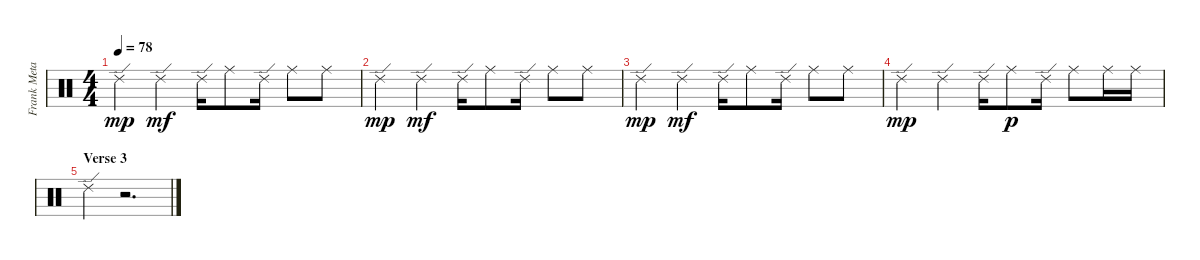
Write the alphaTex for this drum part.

\track ("Frank Metayer" "Frank Meta") {instrument percussion}
\staff {score}
\articulation defaults
\ts (4 4)
\tempo 78
\clef neutral
\ks c "Ride (edge) 2".4{dy mp} "Ride (edge) 2".4{dy mf} "Ride (edge) 2".16 "Ride (middle)".8 "Ride (edge) 2".16 "Ride (middle)".8 "Ride (middle)".8
|
"Ride (edge) 2".4{dy mp} "Ride (edge) 2".4{dy mf} "Ride (edge) 2".16 "Ride (middle)".8 "Ride (edge) 2".16 "Ride (middle)".8 "Ride (middle)".8 |
"Ride (edge) 2".4{dy mp} "Ride (edge) 2".4{dy mf} "Ride (edge) 2".16 "Ride (middle)".8 "Ride (edge) 2".16 "Ride (middle)".8 "Ride (middle)".8 |
"Ride (edge) 2".4{dy mp} "Ride (edge) 2".4 "Ride (edge) 2".16 "Ride (middle)".8{dy p} "Ride (edge) 2".16 "Ride (middle)".8 "Ride (middle)".16 "Ride (middle)".16 |
\section ("" "Verse 3")
"Ride (edge) 2".4 r.2{d}
